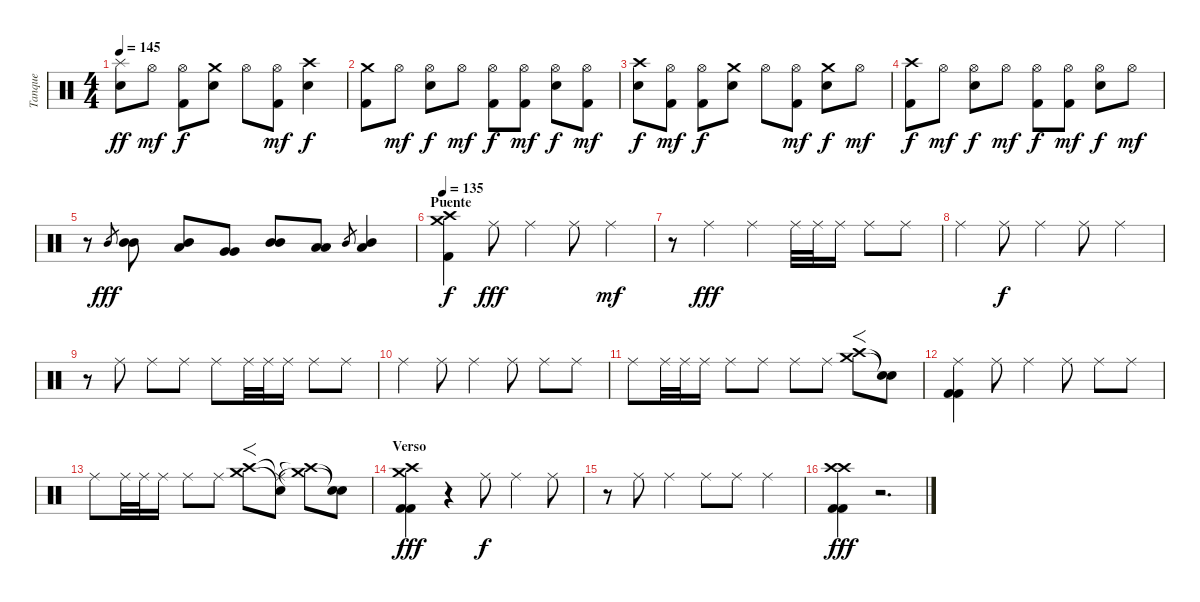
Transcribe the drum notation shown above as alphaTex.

\track ("Tanque" "Tanque") {instrument percussion}
\staff {score}
\articulation defaults
\ts (4 4)
\tempo 145
\clef neutral
\ks c
("Splash (hit)" "Electric Snare (hit)").8{dy ff} "Hi-Hat (open)".8{dy mf} ("Hi-Hat (open)" "Kick (hit) 2").8{dy f} ("Crash medium (hit)" "Electric Snare (hit)").8 "Hi-Hat (open)".8 ("Hi-Hat (open)" "Kick (hit) 2").8{dy mf} ("Crash high (hit)" "Electric Snare (hit)").4{dy f} |
("Crash medium (hit)" "Kick (hit) 2").8 "Hi-Hat (open)".8{dy mf} ("Hi-Hat (open)" "Electric Snare (hit)").8{dy f} "Hi-Hat (open)".8{dy mf} ("Hi-Hat (open)" "Kick (hit) 2").8{dy f} ("Hi-Hat (open)" "Kick (hit) 2").8{dy mf} ("Hi-Hat (open)" "Electric Snare (hit)").8{dy f} ("Hi-Hat (open)" "Kick (hit) 2").8{dy mf} |
("Crash high (hit)" "Electric Snare (hit)").8{dy f} ("Hi-Hat (open)" "Kick (hit) 2").8{dy mf} ("Hi-Hat (open)" "Kick (hit) 2").8{dy f} ("Crash medium (hit)" "Electric Snare (hit)").8 "Hi-Hat (open)".8 ("Hi-Hat (open)" "Kick (hit) 2").8{dy mf} ("Crash medium (hit)" "Electric Snare (hit)").8{dy f} "Hi-Hat (open)".8{dy mf} |
("Crash high (hit)" "Kick (hit) 2").8{dy f} "Hi-Hat (open)".8{dy mf} ("Hi-Hat (open)" "Electric Snare (hit)").8{dy f} "Hi-Hat (open)".8{dy mf} ("Hi-Hat (open)" "Kick (hit) 2").8{dy f} ("Hi-Hat (open)" "Kick (hit) 2").8{dy mf} ("Hi-Hat (open)" "Electric Snare (hit)").8{dy f} "Hi-Hat (open)".8{dy mf} |
r.8 "Mid Tom (hit)".8{gr dy fff} ("Mid Tom (hit)" "Mid Tom (hit)").8 ("Mid Tom (hit)" "Low Tom (hit)").8 ("Very Low Tom (hit)" "Very Low Tom (hit)").8 ("Mid Tom (hit)" "Mid Tom (hit)").8 ("Low Tom (hit)" "Low Tom (hit)").8 "Mid Tom (hit)".8{gr} ("Mid Tom (hit)" "Low Tom (hit)").4 |
\section ("" "Puente")
\tempo 135
("Crash high (hit)" "Crash medium (hit)" "Kick (hit) 2").4{dy f} "Ride (middle)".8{dy fff} "Ride (middle)".4 "Ride (middle)".8 "Ride (middle)".4{dy mf} |
r.8 "Ride (middle)".4{dy fff} "Ride (middle)".4 "Ride (middle)".32 "Ride (middle)".32 "Ride (middle)".16 "Ride (middle)".8 "Ride (middle)".8 |
"Ride (middle)".4 "Ride (middle)".8{dy f} "Ride (middle)".4 "Ride (middle)".8 "Ride (middle)".4 |
r.8 "Ride (middle)".8 "Ride (middle)".8 "Ride (middle)".8 "Ride (middle)".8 "Ride (middle)".32 "Ride (middle)".32 "Ride (middle)".16 "Ride (middle)".8 "Ride (middle)".8 |
"Ride (middle)".4 "Ride (middle)".8 "Ride (middle)".4 "Ride (middle)".8 "Ride (middle)".8 "Ride (middle)".8 |
"Ride (middle)".8 "Ride (middle)".32 "Ride (middle)".32 "Ride (middle)".16 "Ride (middle)".8 "Ride (middle)".8 "Ride (middle)".8 "Ride (middle)".8 ("Crash medium (hit)" "Crash high (hit)").8{f} ("Snare (hit)"{t} "Snare (hit)"{t}).8 |
("Ride (middle)" "Kick (hit) 2" "Kick (hit) 2").4 "Ride (middle)".8 "Ride (middle)".4 "Ride (middle)".8 "Ride (middle)".8 "Ride (middle)".8 |
"Ride (middle)".8 "Ride (middle)".32 "Ride (middle)".32 "Ride (middle)".16 "Ride (middle)".8 "Ride (middle)".8 ("Crash medium (hit)" "Crash high (hit)").8{f} ("Snare (hit)"{t} "Ride (middle)"{t}).8 ("Crash medium (hit)"{t} "Crash high (hit)"{t}).8 ("Snare (hit)"{t} "Snare (hit)"{t}).8 |
\section ("" "Verso")
("Crash high (hit)" "Crash medium (hit)" "Kick (hit) 2" "Kick (hit) 2").4{dy fff} r.4 "Ride (middle)".8{dy f} "Ride (middle)".4 "Ride (middle)".8 |
r.8 "Ride (middle)".8 "Ride (middle)".4 "Ride (middle)".8 "Ride (middle)".8 "Ride (middle)".4 |
("Crash high (hit)" "Crash high (hit)" "Kick (hit) 2" "Kick (hit) 2").4{dy fff} r.2{d}
